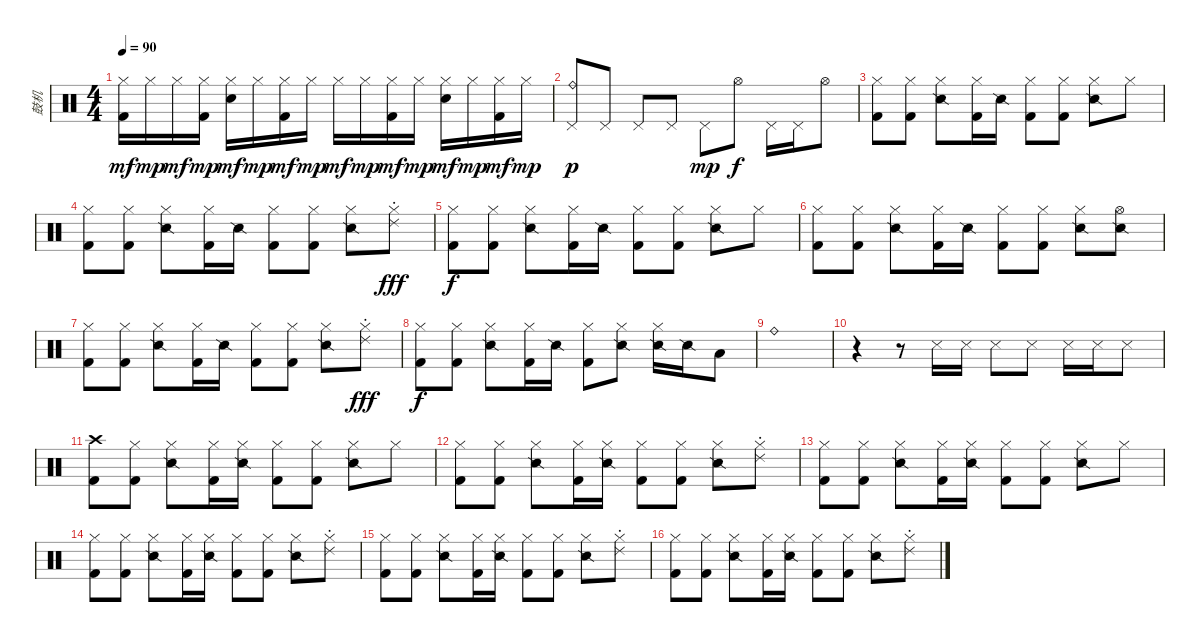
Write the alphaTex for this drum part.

\track ("鼓机" "鼓机") {instrument percussion}
\staff {score}
\articulation defaults
\ts (4 4)
\tempo 90
\clef neutral
\ks c
("Hi-Hat (closed)" "Kick (hit) 2").16{dy mf} "Hi-Hat (closed)".16{dy mp} "Hi-Hat (closed)".16{dy mf} ("Hi-Hat (closed)" "Kick (hit) 2").16{dy mp} ("Hi-Hat (closed)" "Snare (hit) 2").16{dy mf} "Hi-Hat (closed)".16{dy mp} ("Hi-Hat (closed)" "Kick (hit) 2").16{dy mf} "Hi-Hat (closed)".16{dy mp} "Hi-Hat (closed)".16{dy mf} "Hi-Hat (closed)".16{dy mp} ("Hi-Hat (closed)" "Kick (hit) 2").16{dy mf} "Hi-Hat (closed)".16{dy mp} ("Hi-Hat (closed)" "Snare (hit) 2").16{dy mf} "Hi-Hat (closed)".16{dy mp} ("Hi-Hat (closed)" "Kick (hit) 2").16{dy mf} "Hi-Hat (closed)".16{dy mp} |
("Ride (bell)" "Pedal Hi-Hat (hit)").8{dy p} "Pedal Hi-Hat (hit)".8 "Pedal Hi-Hat (hit)".8 "Pedal Hi-Hat (hit)".8 "Pedal Hi-Hat (hit)".8{dy mp} "Hi-Hat (open)".8{dy f} "Pedal Hi-Hat (hit)".16 "Pedal Hi-Hat (hit)".16 "Hi-Hat (open)".8 |
("Hi-Hat (closed)" "Kick (hit) 2").8 ("Hi-Hat (closed)" "Kick (hit) 2").8 ("Hi-Hat (closed)" "Snare (side stick) 2").8 ("Hi-Hat (closed)" "Kick (hit) 2").16 "Snare (side stick) 2".16 ("Hi-Hat (closed)" "Kick (hit) 2").8 ("Hi-Hat (closed)" "Kick (hit) 2").8 ("Hi-Hat (closed)" "Snare (side stick) 2").8 "Hi-Hat (closed)".8 |
("Hi-Hat (closed)" "Kick (hit) 2").8 ("Hi-Hat (closed)" "Kick (hit) 2").8 ("Hi-Hat (closed)" "Snare (side stick) 2").8 ("Hi-Hat (closed)" "Kick (hit) 2").16 "Snare (side stick) 2".16 ("Hi-Hat (closed)" "Kick (hit) 2").8 ("Hi-Hat (closed)" "Kick (hit) 2").8 ("Hi-Hat (closed)" "Snare (side stick) 2").8 ("Hi-Hat (closed)" "Ride (choke) 2").8{dy fff} |
("Hi-Hat (closed)" "Kick (hit) 2").8{dy f} ("Hi-Hat (closed)" "Kick (hit) 2").8 ("Hi-Hat (closed)" "Snare (side stick) 2").8 ("Hi-Hat (closed)" "Kick (hit) 2").16 "Snare (side stick) 2".16 ("Hi-Hat (closed)" "Kick (hit) 2").8 ("Hi-Hat (closed)" "Kick (hit) 2").8 ("Hi-Hat (closed)" "Snare (side stick) 2").8 "Hi-Hat (closed)".8 |
("Hi-Hat (closed)" "Kick (hit) 2").8 ("Hi-Hat (closed)" "Kick (hit) 2").8 ("Hi-Hat (closed)" "Snare (side stick) 2").8 ("Hi-Hat (closed)" "Kick (hit) 2").16 "Snare (side stick) 2".16 ("Hi-Hat (closed)" "Kick (hit) 2").8 ("Hi-Hat (closed)" "Kick (hit) 2").8 ("Hi-Hat (closed)" "Snare (side stick) 2").8 ("Hi-Hat (open)" "Snare (side stick) 2").8 |
("Hi-Hat (closed)" "Kick (hit) 2").8 ("Hi-Hat (closed)" "Kick (hit) 2").8 ("Hi-Hat (closed)" "Snare (side stick) 2").8 ("Hi-Hat (closed)" "Kick (hit) 2").16 "Snare (side stick) 2".16 ("Hi-Hat (closed)" "Kick (hit) 2").8 ("Hi-Hat (closed)" "Kick (hit) 2").8 ("Hi-Hat (closed)" "Snare (side stick) 2").8 ("Hi-Hat (closed)" "Ride (choke) 2").8{dy fff} |
("Hi-Hat (closed)" "Kick (hit) 2").8{dy f} ("Hi-Hat (closed)" "Kick (hit) 2").8 ("Hi-Hat (closed)" "Snare (side stick) 2").8 ("Hi-Hat (closed)" "Kick (hit) 2").16 "Snare (side stick) 2".16 ("Hi-Hat (closed)" "Kick (hit) 2").8 ("Hi-Hat (closed)" "Snare (side stick) 2").8 ("Hi-Hat (closed)" "Snare (side stick) 2").16 "Snare (side stick) 2".16 "Low Tom (hit)".8 |
"Ride (bell)".1 |
r.4 r.8 "Snare (side stick) 3".16 "Snare (side stick) 3".16 "Snare (side stick) 3".8 "Snare (side stick) 3".8 "Snare (side stick) 3".16 "Snare (side stick) 3".16 "Snare (side stick) 3".8 |
("Crash high (hit)" "Kick (hit) 2").8 ("Hi-Hat (closed)" "Kick (hit) 2").8 ("Hi-Hat (closed)" "Snare (side stick) 2").8 ("Hi-Hat (closed)" "Kick (hit) 2").16 ("Hi-Hat (closed)" "Snare (side stick) 2").16 ("Hi-Hat (closed)" "Kick (hit) 2").8 ("Hi-Hat (closed)" "Kick (hit) 2").8 ("Hi-Hat (closed)" "Snare (side stick) 2").8 "Hi-Hat (closed)".8 |
("Hi-Hat (closed)" "Kick (hit) 2").8 ("Hi-Hat (closed)" "Kick (hit) 2").8 ("Hi-Hat (closed)" "Snare (side stick) 2").8 ("Hi-Hat (closed)" "Kick (hit) 2").16 ("Hi-Hat (closed)" "Snare (side stick) 2").16 ("Hi-Hat (closed)" "Kick (hit) 2").8 ("Hi-Hat (closed)" "Kick (hit) 2").8 ("Hi-Hat (closed)" "Snare (side stick) 2").8 ("Hi-Hat (closed)" "Ride (choke) 2").8 |
("Hi-Hat (closed)" "Kick (hit) 2").8 ("Hi-Hat (closed)" "Kick (hit) 2").8 ("Hi-Hat (closed)" "Snare (side stick) 2").8 ("Hi-Hat (closed)" "Kick (hit) 2").16 ("Hi-Hat (closed)" "Snare (side stick) 2").16 ("Hi-Hat (closed)" "Kick (hit) 2").8 ("Hi-Hat (closed)" "Kick (hit) 2").8 ("Hi-Hat (closed)" "Snare (side stick) 2").8 "Hi-Hat (closed)".8 |
("Hi-Hat (closed)" "Kick (hit) 2").8 ("Hi-Hat (closed)" "Kick (hit) 2").8 ("Hi-Hat (closed)" "Snare (side stick) 2").8 ("Hi-Hat (closed)" "Kick (hit) 2").16 ("Hi-Hat (closed)" "Snare (side stick) 2").16 ("Hi-Hat (closed)" "Kick (hit) 2").8 ("Hi-Hat (closed)" "Kick (hit) 2").8 ("Hi-Hat (closed)" "Snare (side stick) 2").8 ("Hi-Hat (closed)" "Ride (choke) 2").8 |
("Hi-Hat (closed)" "Kick (hit) 2").8 ("Hi-Hat (closed)" "Kick (hit) 2").8 ("Hi-Hat (closed)" "Snare (side stick) 2").8 ("Hi-Hat (closed)" "Kick (hit) 2").16 ("Hi-Hat (closed)" "Snare (side stick) 2").16 ("Hi-Hat (closed)" "Kick (hit) 2").8 ("Hi-Hat (closed)" "Kick (hit) 2").8 ("Hi-Hat (closed)" "Snare (side stick) 2").8 ("Hi-Hat (closed)" "Ride (choke) 2").8 |
("Hi-Hat (closed)" "Kick (hit) 2").8 ("Hi-Hat (closed)" "Kick (hit) 2").8 ("Hi-Hat (closed)" "Snare (side stick) 2").8 ("Hi-Hat (closed)" "Kick (hit) 2").16 ("Hi-Hat (closed)" "Snare (side stick) 2").16 ("Hi-Hat (closed)" "Kick (hit) 2").8 ("Hi-Hat (closed)" "Kick (hit) 2").8 ("Hi-Hat (closed)" "Snare (side stick) 2").8 ("Hi-Hat (closed)" "Ride (choke) 2").8
